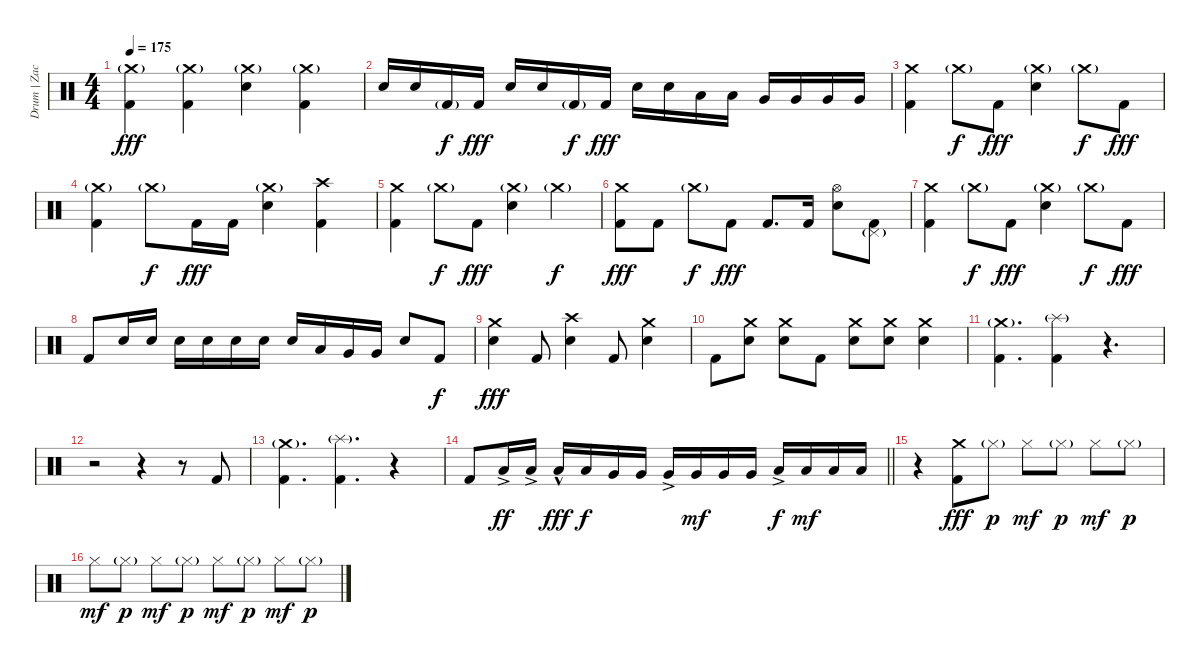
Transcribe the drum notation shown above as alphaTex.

\track ("Drum | Zac" "Drum | Zac") {instrument percussion}
\staff {score}
\articulation defaults
\ts (4 4)
\tempo 175
\clef neutral
\ks c
("Crash medium (hit)"{g} "Kick (hit) 2").4{dy fff} ("Crash medium (hit)"{g} "Kick (hit) 2").4 ("Crash medium (hit)"{g} "Electric Snare (hit)").4 ("Crash medium (hit)"{g} "Kick (hit) 2").4 |
"Electric Snare (hit)".16 "Electric Snare (hit)".16 "Kick (hit) 2"{g}.16{dy f} "Kick (hit) 2".16{dy fff} "Electric Snare (hit)".16 "Electric Snare (hit)".16 "Kick (hit) 2"{g}.16{dy f} "Kick (hit) 2".16{dy fff} "Electric Snare (hit)".16 "Electric Snare (hit)".16 "Low Tom (hit)".16 "Low Tom (hit)".16 "Very Low Tom (hit)".16 "Very Low Tom (hit)".16 "Very Low Tom (hit)".16 "Very Low Tom (hit)".16 |
("Crash medium (hit)" "Kick (hit) 2").4 "Crash medium (hit)"{g}.8{dy f} "Kick (hit) 2".8{dy fff} ("Crash medium (hit)"{g} "Electric Snare (hit)").4 "Crash medium (hit)"{g}.8{dy f} "Kick (hit) 2".8{dy fff} |
("Crash medium (hit)"{g} "Kick (hit) 2").4 "Crash medium (hit)"{g}.8{dy f} "Kick (hit) 2".16{dy fff} "Kick (hit) 2".16 ("Crash medium (hit)"{g} "Electric Snare (hit)").4 ("Crash high (hit)" "Kick (hit) 2").4 |
("Crash medium (hit)" "Kick (hit) 2").4 "Crash medium (hit)"{g}.8{dy f} "Kick (hit) 2".8{dy fff} ("Crash medium (hit)"{g} "Electric Snare (hit)").4 "Crash medium (hit)"{g}.4{dy f} |
("Crash medium (hit)" "Kick (hit) 2").8{dy fff} "Kick (hit) 2".8 "Crash medium (hit)"{g}.8{dy f} "Kick (hit) 2".8{dy fff} "Kick (hit) 2".8{d} "Kick (hit) 2".16 ("Hi-Hat (open)" "Electric Snare (hit)").8 ("Pedal Hi-Hat (hit)"{g} "Kick (hit) 2").8 |
("Crash medium (hit)" "Kick (hit) 2").4 "Crash medium (hit)"{g}.8{dy f} "Kick (hit) 2".8{dy fff} ("Crash medium (hit)"{g} "Electric Snare (hit)").4 "Crash medium (hit)"{g}.8{dy f} "Kick (hit) 2".8{dy fff} |
"Kick (hit) 2".8 "Electric Snare (hit)".16 "Electric Snare (hit)".16 "Electric Snare (hit)".16 "Electric Snare (hit)".16 "Electric Snare (hit)".16 "Electric Snare (hit)".16 "Electric Snare (hit)".16 "Low Tom (hit)".16 "Very Low Tom (hit)".16 "Very Low Tom (hit)".16 "Electric Snare (hit)".8 "Kick (hit) 2".8{dy f} |
("Crash medium (hit)" "Electric Snare (hit)").4{dy fff} "Kick (hit) 2".8 ("Crash high (hit)" "Electric Snare (hit)").4 "Kick (hit) 2".8 ("Crash medium (hit)" "Electric Snare (hit)").4 |
"Kick (hit) 2".8 ("Crash medium (hit)" "Electric Snare (hit)").8 ("Crash medium (hit)" "Electric Snare (hit)").8 "Kick (hit) 2".8 ("Crash medium (hit)" "Electric Snare (hit)").8 ("Crash medium (hit)" "Electric Snare (hit)").8 ("Crash medium (hit)" "Electric Snare (hit)").4 |
("Crash medium (hit)"{g} "Kick (hit) 2").4{d} ("Splash (hit)"{g} "Kick (hit) 2").4 r.4{d} |
r.2 r.4 r.8 "Kick (hit) 2".8 |
("Crash medium (hit)"{g} "Kick (hit) 2").4{d} ("Splash (hit)"{g} "Kick (hit) 2").4{d} r.4 |
\barLineRight lightlight "Kick (hit) 2".8 "Low Tom (hit)"{ac}.16{dy ff} "Low Tom (hit)"{ac}.16 "Low Tom (hit)"{hac}.16{dy fff} "Low Tom (hit)".16{dy f} "Very Low Tom (hit)".16 "Very Low Tom (hit)".16 "Very Low Tom (hit)"{ac}.16 "Very Low Tom (hit)".16{dy mf} "Very Low Tom (hit)".16 "Very Low Tom (hit)".16 "Low Floor Tom (hit)"{ac}.16{dy f} "Low Floor Tom (hit)".16{dy mf} "Low Floor Tom (hit)".16 "Low Floor Tom (hit)".16
|
\section ("" "")
r.4 ("Crash medium (hit)" "Kick (hit) 2").8{dy fff} "Hi-Hat (closed)"{g}.8{dy p} "Hi-Hat (closed)".8{dy mf} "Hi-Hat (closed)"{g}.8{dy p} "Hi-Hat (closed)".8{dy mf} "Hi-Hat (closed)"{g}.8{dy p} |
"Hi-Hat (closed)".8{dy mf} "Hi-Hat (closed)"{g}.8{dy p} "Hi-Hat (closed)".8{dy mf} "Hi-Hat (closed)"{g}.8{dy p} "Hi-Hat (closed)".8{dy mf} "Hi-Hat (closed)"{g}.8{dy p} "Hi-Hat (closed)".8{dy mf} "Hi-Hat (closed)"{g}.8{dy p}
